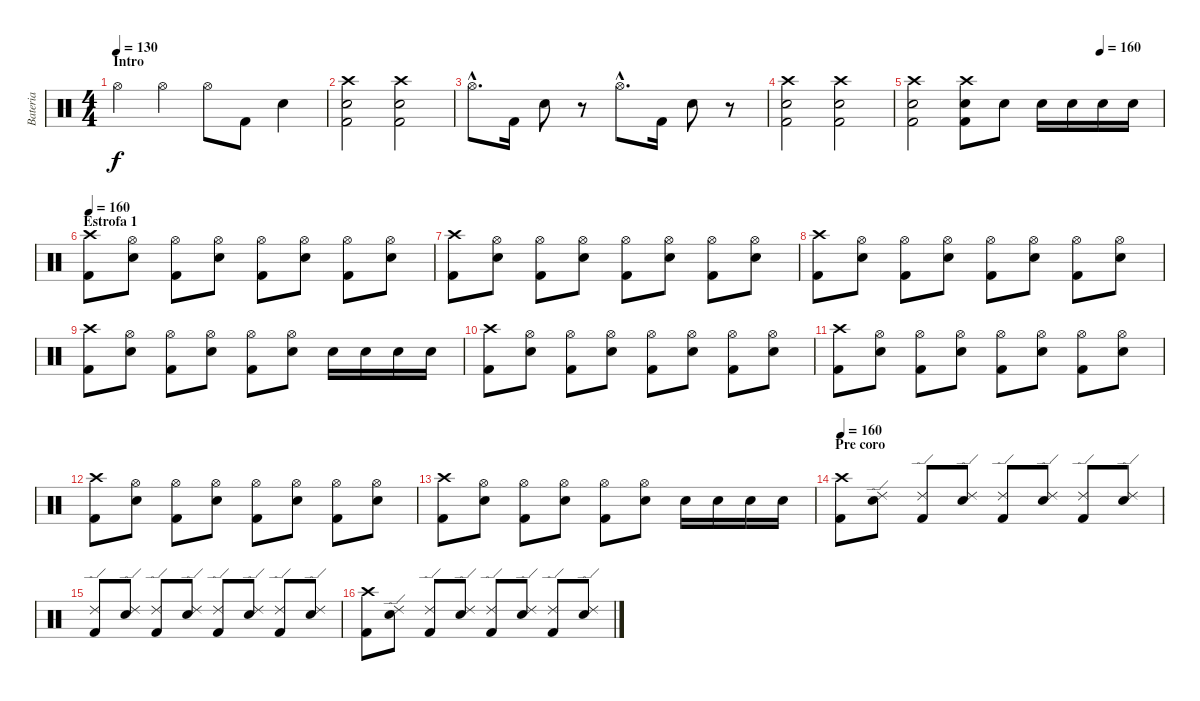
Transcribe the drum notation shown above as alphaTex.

\track ("Bateria" "Bateria") {instrument percussion}
\staff {score}
\articulation defaults
\ts (4 4)
\section ("" "Intro")
\tempo 130
\clef neutral
\ks c "Hi-Hat (open)".4{dy f} "Hi-Hat (open)".4 "Hi-Hat (open)".8 "Kick (hit) 2".8 "Snare (hit) 2".4
|
("Crash high (hit)" "Snare (hit) 2" "Kick (hit) 2").2 ("Crash high (hit)" "Snare (hit) 2" "Kick (hit) 2").2 |
"Hi-Hat (open)"{hac}.8{d} "Kick (hit) 2".16 "Snare (hit) 2".8 r.8 "Hi-Hat (open)"{hac}.8{d} "Kick (hit) 2".16 "Snare (hit) 2".8 r.8 |
("Crash high (hit)" "Snare (hit) 2" "Kick (hit) 2").2 ("Crash high (hit)" "Snare (hit) 2" "Kick (hit) 2").2 |
\tempo (160 0.75)
("Crash high (hit)" "Snare (hit) 2" "Kick (hit) 2").2 ("Crash high (hit)" "Snare (hit) 2" "Kick (hit) 2").8 "Snare (hit) 2".8 "Snare (hit) 2".16 "Snare (hit) 2".16 "Snare (hit) 2".16 "Snare (hit) 2".16 |
\section ("" "Estrofa 1")
\tempo 160
("Crash high (hit)" "Kick (hit) 2").8 ("Hi-Hat (open)" "Snare (hit) 2").8 ("Hi-Hat (open)" "Kick (hit) 2").8 ("Hi-Hat (open)" "Snare (hit) 2").8 ("Hi-Hat (open)" "Kick (hit) 2").8 ("Hi-Hat (open)" "Snare (hit) 2").8 ("Hi-Hat (open)" "Kick (hit) 2").8 ("Hi-Hat (open)" "Snare (hit) 2").8 |
("Crash high (hit)" "Kick (hit) 2").8 ("Hi-Hat (open)" "Snare (hit) 2").8 ("Hi-Hat (open)" "Kick (hit) 2").8 ("Hi-Hat (open)" "Snare (hit) 2").8 ("Hi-Hat (open)" "Kick (hit) 2").8 ("Hi-Hat (open)" "Snare (hit) 2").8 ("Hi-Hat (open)" "Kick (hit) 2").8 ("Hi-Hat (open)" "Snare (hit) 2").8 |
("Crash high (hit)" "Kick (hit) 2").8 ("Hi-Hat (open)" "Snare (hit) 2").8 ("Hi-Hat (open)" "Kick (hit) 2").8 ("Hi-Hat (open)" "Snare (hit) 2").8 ("Hi-Hat (open)" "Kick (hit) 2").8 ("Hi-Hat (open)" "Snare (hit) 2").8 ("Hi-Hat (open)" "Kick (hit) 2").8 ("Hi-Hat (open)" "Snare (hit) 2").8 |
("Crash high (hit)" "Kick (hit) 2").8 ("Hi-Hat (open)" "Snare (hit) 2").8 ("Hi-Hat (open)" "Kick (hit) 2").8 ("Hi-Hat (open)" "Snare (hit) 2").8 ("Hi-Hat (open)" "Kick (hit) 2").8 ("Hi-Hat (open)" "Snare (hit) 2").8 "Snare (hit) 2".16 "Snare (hit) 2".16 "Snare (hit) 2".16 "Snare (hit) 2".16 |
("Crash high (hit)" "Kick (hit) 2").8 ("Hi-Hat (open)" "Snare (hit) 2").8 ("Hi-Hat (open)" "Kick (hit) 2").8 ("Hi-Hat (open)" "Snare (hit) 2").8 ("Hi-Hat (open)" "Kick (hit) 2").8 ("Hi-Hat (open)" "Snare (hit) 2").8 ("Hi-Hat (open)" "Kick (hit) 2").8 ("Hi-Hat (open)" "Snare (hit) 2").8 |
("Crash high (hit)" "Kick (hit) 2").8 ("Hi-Hat (open)" "Snare (hit) 2").8 ("Hi-Hat (open)" "Kick (hit) 2").8 ("Hi-Hat (open)" "Snare (hit) 2").8 ("Hi-Hat (open)" "Kick (hit) 2").8 ("Hi-Hat (open)" "Snare (hit) 2").8 ("Hi-Hat (open)" "Kick (hit) 2").8 ("Hi-Hat (open)" "Snare (hit) 2").8 |
("Crash high (hit)" "Kick (hit) 2").8 ("Hi-Hat (open)" "Snare (hit) 2").8 ("Hi-Hat (open)" "Kick (hit) 2").8 ("Hi-Hat (open)" "Snare (hit) 2").8 ("Hi-Hat (open)" "Kick (hit) 2").8 ("Hi-Hat (open)" "Snare (hit) 2").8 ("Hi-Hat (open)" "Kick (hit) 2").8 ("Hi-Hat (open)" "Snare (hit) 2").8 |
("Crash high (hit)" "Kick (hit) 2").8 ("Hi-Hat (open)" "Snare (hit) 2").8 ("Hi-Hat (open)" "Kick (hit) 2").8 ("Hi-Hat (open)" "Snare (hit) 2").8 ("Hi-Hat (open)" "Kick (hit) 2").8 ("Hi-Hat (open)" "Snare (hit) 2").8 "Snare (hit) 2".16 "Snare (hit) 2".16 "Snare (hit) 2".16 "Snare (hit) 2".16 |
\section ("" "Pre coro")
\tempo 160
("Crash high (hit)" "Kick (hit) 2").8 ("Ride (edge) 2" "Snare (hit) 2").8 ("Ride (edge) 2" "Kick (hit) 2").8 ("Ride (edge) 2" "Snare (hit) 2").8 ("Ride (edge) 2" "Kick (hit) 2").8 ("Ride (edge) 2" "Snare (hit) 2").8 ("Ride (edge) 2" "Kick (hit) 2").8 ("Ride (edge) 2" "Snare (hit) 2").8 |
("Ride (edge) 2" "Kick (hit) 2").8 ("Ride (edge) 2" "Snare (hit) 2").8 ("Ride (edge) 2" "Kick (hit) 2").8 ("Ride (edge) 2" "Snare (hit) 2").8 ("Ride (edge) 2" "Kick (hit) 2").8 ("Ride (edge) 2" "Snare (hit) 2").8 ("Ride (edge) 2" "Kick (hit) 2").8 ("Ride (edge) 2" "Snare (hit) 2").8 |
("Crash high (hit)" "Kick (hit) 2").8 ("Ride (edge) 2" "Snare (hit) 2").8 ("Ride (edge) 2" "Kick (hit) 2").8 ("Ride (edge) 2" "Snare (hit) 2").8 ("Ride (edge) 2" "Kick (hit) 2").8 ("Ride (edge) 2" "Snare (hit) 2").8 ("Ride (edge) 2" "Kick (hit) 2").8 ("Ride (edge) 2" "Snare (hit) 2").8
